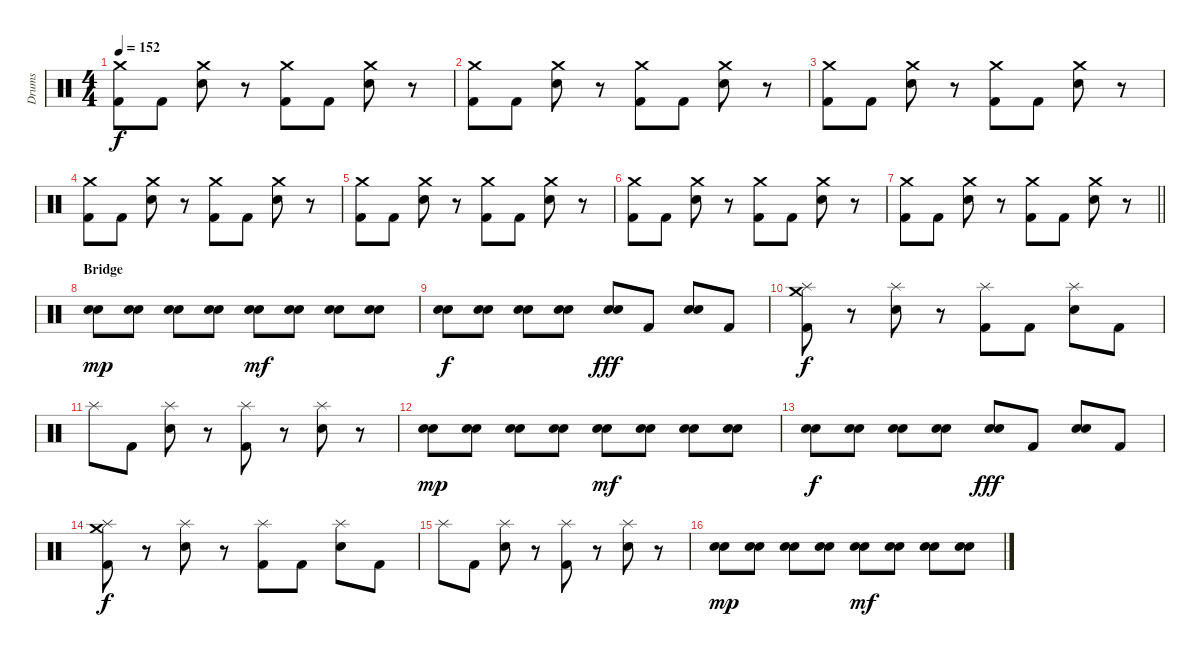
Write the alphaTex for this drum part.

\track ("Drums" "Drums") {instrument percussion}
\staff {score}
\articulation defaults
\ts (4 4)
\tempo 152
\clef neutral
\ks c
("Crash medium (hit)" "Kick (hit) 2").8{dy f} "Kick (hit) 2".8 ("Crash medium (hit)" "Electric Snare (hit)").8 r.8 ("Crash medium (hit)" "Kick (hit) 2").8 "Kick (hit) 2".8 ("Crash medium (hit)" "Electric Snare (hit)").8 r.8 |
("Crash medium (hit)" "Kick (hit) 2").8 "Kick (hit) 2".8 ("Crash medium (hit)" "Electric Snare (hit)").8 r.8 ("Crash medium (hit)" "Kick (hit) 2").8 "Kick (hit) 2".8 ("Crash medium (hit)" "Electric Snare (hit)").8 r.8 |
("Crash medium (hit)" "Kick (hit) 2").8 "Kick (hit) 2".8 ("Crash medium (hit)" "Electric Snare (hit)").8 r.8 ("Crash medium (hit)" "Kick (hit) 2").8 "Kick (hit) 2".8 ("Crash medium (hit)" "Electric Snare (hit)").8 r.8 |
("Crash medium (hit)" "Kick (hit) 2").8 "Kick (hit) 2".8 ("Crash medium (hit)" "Electric Snare (hit)").8 r.8 ("Crash medium (hit)" "Kick (hit) 2").8 "Kick (hit) 2".8 ("Crash medium (hit)" "Electric Snare (hit)").8 r.8 |
("Crash medium (hit)" "Kick (hit) 2").8 "Kick (hit) 2".8 ("Crash medium (hit)" "Electric Snare (hit)").8 r.8 ("Crash medium (hit)" "Kick (hit) 2").8 "Kick (hit) 2".8 ("Crash medium (hit)" "Electric Snare (hit)").8 r.8 |
("Crash medium (hit)" "Kick (hit) 2").8 "Kick (hit) 2".8 ("Crash medium (hit)" "Electric Snare (hit)").8 r.8 ("Crash medium (hit)" "Kick (hit) 2").8 "Kick (hit) 2".8 ("Crash medium (hit)" "Electric Snare (hit)").8 r.8 |
\barLineRight lightlight
("Crash medium (hit)" "Kick (hit) 2").8 "Kick (hit) 2".8 ("Crash medium (hit)" "Electric Snare (hit)").8 r.8 ("Crash medium (hit)" "Kick (hit) 2").8 "Kick (hit) 2".8 ("Crash medium (hit)" "Electric Snare (hit)").8 r.8 |
\section ("" "Bridge")
("Electric Snare (hit)" "Electric Snare (hit)").8{dy mp} ("Electric Snare (hit)" "Electric Snare (hit)").8 ("Electric Snare (hit)" "Electric Snare (hit)").8 ("Electric Snare (hit)" "Electric Snare (hit)").8 ("Electric Snare (hit)" "Electric Snare (hit)").8{dy mf} ("Electric Snare (hit)" "Electric Snare (hit)").8 ("Electric Snare (hit)" "Electric Snare (hit)").8 ("Electric Snare (hit)" "Electric Snare (hit)").8 |
("Electric Snare (hit)" "Electric Snare (hit)").8{dy f} ("Electric Snare (hit)" "Electric Snare (hit)").8 ("Electric Snare (hit)" "Electric Snare (hit)").8 ("Electric Snare (hit)" "Electric Snare (hit)").8 ("Electric Snare (hit)" "Electric Snare (hit)").8{dy fff} "Kick (hit) 2".8 ("Electric Snare (hit)" "Electric Snare (hit)").8 "Kick (hit) 2".8 |
("Splash (hit)" "Crash medium (hit)" "Kick (hit) 2").8{dy f} r.8 ("Splash (hit)" "Electric Snare (hit)").8 r.8 ("Splash (hit)" "Kick (hit) 2").8 "Kick (hit) 2".8 ("Splash (hit)" "Electric Snare (hit)").8 "Kick (hit) 2".8 |
"Splash (hit)".8 "Kick (hit) 2".8 ("Splash (hit)" "Electric Snare (hit)").8 r.8 ("Splash (hit)" "Kick (hit) 2").8 r.8 ("Splash (hit)" "Electric Snare (hit)").8 r.8 |
("Electric Snare (hit)" "Electric Snare (hit)").8{dy mp} ("Electric Snare (hit)" "Electric Snare (hit)").8 ("Electric Snare (hit)" "Electric Snare (hit)").8 ("Electric Snare (hit)" "Electric Snare (hit)").8 ("Electric Snare (hit)" "Electric Snare (hit)").8{dy mf} ("Electric Snare (hit)" "Electric Snare (hit)").8 ("Electric Snare (hit)" "Electric Snare (hit)").8 ("Electric Snare (hit)" "Electric Snare (hit)").8 |
("Electric Snare (hit)" "Electric Snare (hit)").8{dy f} ("Electric Snare (hit)" "Electric Snare (hit)").8 ("Electric Snare (hit)" "Electric Snare (hit)").8 ("Electric Snare (hit)" "Electric Snare (hit)").8 ("Electric Snare (hit)" "Electric Snare (hit)").8{dy fff} "Kick (hit) 2".8 ("Electric Snare (hit)" "Electric Snare (hit)").8 "Kick (hit) 2".8 |
("Splash (hit)" "Crash medium (hit)" "Kick (hit) 2").8{dy f} r.8 ("Splash (hit)" "Electric Snare (hit)").8 r.8 ("Splash (hit)" "Kick (hit) 2").8 "Kick (hit) 2".8 ("Splash (hit)" "Electric Snare (hit)").8 "Kick (hit) 2".8 |
"Splash (hit)".8 "Kick (hit) 2".8 ("Splash (hit)" "Electric Snare (hit)").8 r.8 ("Splash (hit)" "Kick (hit) 2").8 r.8 ("Splash (hit)" "Electric Snare (hit)").8 r.8 |
("Electric Snare (hit)" "Electric Snare (hit)").8{dy mp} ("Electric Snare (hit)" "Electric Snare (hit)").8 ("Electric Snare (hit)" "Electric Snare (hit)").8 ("Electric Snare (hit)" "Electric Snare (hit)").8 ("Electric Snare (hit)" "Electric Snare (hit)").8{dy mf} ("Electric Snare (hit)" "Electric Snare (hit)").8 ("Electric Snare (hit)" "Electric Snare (hit)").8 ("Electric Snare (hit)" "Electric Snare (hit)").8
